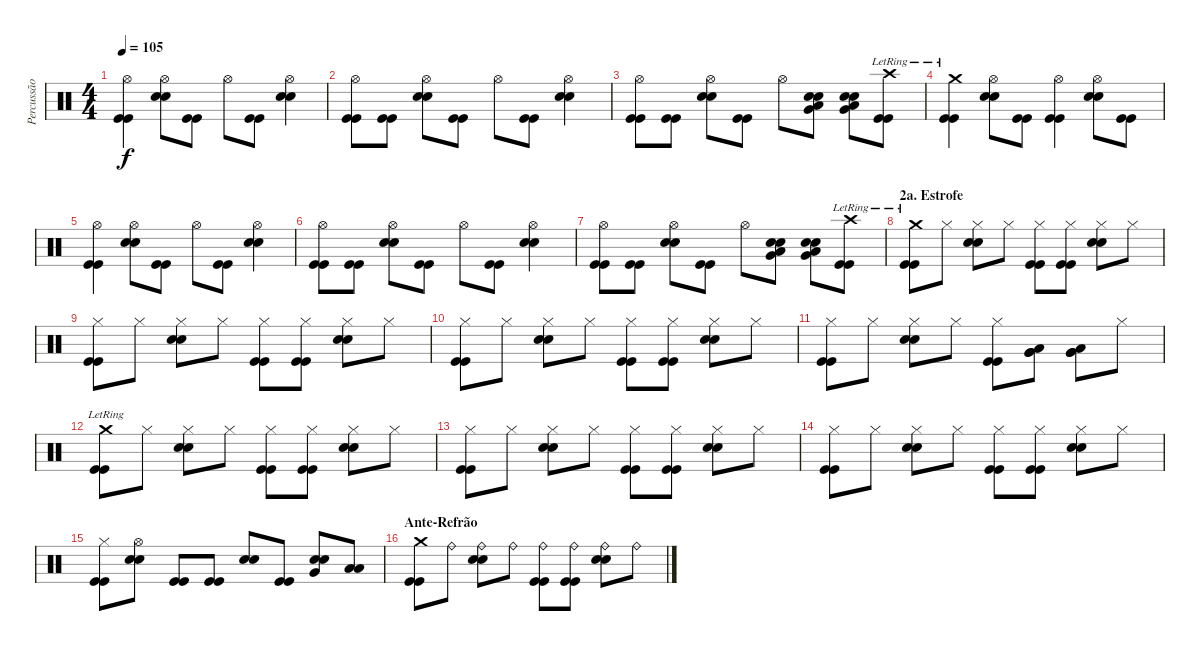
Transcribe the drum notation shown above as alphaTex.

\track ("Percussão" "Percussão") {instrument percussion}
\staff {score}
\articulation defaults
\ts (4 4)
\tempo 105
\clef neutral
\ks c
("Hi-Hat (open)" "Kick (hit)" "Kick (hit)").4{dy f} ("Hi-Hat (open)" "Electric Snare (hit)" "Electric Snare (hit)").8 ("Kick (hit)" "Kick (hit)").8 "Hi-Hat (open)".8 ("Kick (hit)" "Kick (hit)").8 ("Hi-Hat (open)" "Electric Snare (hit)" "Electric Snare (hit)").4 |
("Hi-Hat (open)" "Kick (hit)" "Kick (hit)").8 ("Kick (hit)" "Kick (hit)").8 ("Hi-Hat (open)" "Electric Snare (hit)" "Electric Snare (hit)").8 ("Kick (hit)" "Kick (hit)").8 "Hi-Hat (open)".8 ("Kick (hit)" "Kick (hit)").8 ("Hi-Hat (open)" "Electric Snare (hit)" "Electric Snare (hit)").4 |
("Hi-Hat (open)" "Kick (hit)" "Kick (hit)").8 ("Kick (hit)" "Kick (hit)").8 ("Hi-Hat (open)" "Electric Snare (hit)" "Electric Snare (hit)").8 ("Kick (hit)" "Kick (hit)").8 "Hi-Hat (open)".8 ("Low Tom (hit)" "Very Low Tom (hit)" "Electric Snare (hit)" "Electric Snare (hit)").8 ("Low Tom (hit)" "Very Low Tom (hit)" "Electric Snare (hit)" "Electric Snare (hit)").8 ("Crash high (hit)"{lr} "Kick (hit)" "Kick (hit)").8 |
("Crash medium (hit)"{lr} "Kick (hit)" "Kick (hit)").4 ("Hi-Hat (open)" "Electric Snare (hit)" "Electric Snare (hit)").8 ("Kick (hit)" "Kick (hit)").8 ("Hi-Hat (open)" "Kick (hit)" "Kick (hit)").4 ("Hi-Hat (open)" "Electric Snare (hit)" "Electric Snare (hit)").8 ("Kick (hit)" "Kick (hit)").8 |
("Hi-Hat (open)" "Kick (hit)" "Kick (hit)").4 ("Hi-Hat (open)" "Electric Snare (hit)" "Electric Snare (hit)").8 ("Kick (hit)" "Kick (hit)").8 "Hi-Hat (open)".8 ("Kick (hit)" "Kick (hit)").8 ("Hi-Hat (open)" "Electric Snare (hit)" "Electric Snare (hit)").4 |
("Hi-Hat (open)" "Kick (hit)" "Kick (hit)").8 ("Kick (hit)" "Kick (hit)").8 ("Hi-Hat (open)" "Electric Snare (hit)" "Electric Snare (hit)").8 ("Kick (hit)" "Kick (hit)").8 "Hi-Hat (open)".8 ("Kick (hit)" "Kick (hit)").8 ("Hi-Hat (open)" "Electric Snare (hit)" "Electric Snare (hit)").4 |
("Hi-Hat (open)" "Kick (hit)" "Kick (hit)").8 ("Kick (hit)" "Kick (hit)").8 ("Hi-Hat (open)" "Electric Snare (hit)" "Electric Snare (hit)").8 ("Kick (hit)" "Kick (hit)").8 "Hi-Hat (open)".8 ("Low Tom (hit)" "Very Low Tom (hit)" "Electric Snare (hit)" "Electric Snare (hit)").8 ("Low Tom (hit)" "Very Low Tom (hit)" "Electric Snare (hit)" "Electric Snare (hit)").8 ("Crash high (hit)"{lr} "Kick (hit)" "Kick (hit)").8 |
\section ("" "2a. Estrofe")
("Crash medium (hit)"{lr} "Kick (hit)" "Kick (hit)").8 "Hi-Hat (closed)".8 ("Hi-Hat (closed)" "Electric Snare (hit)" "Electric Snare (hit)").8 "Hi-Hat (closed)".8 ("Hi-Hat (closed)" "Kick (hit)" "Kick (hit)").8 ("Hi-Hat (closed)" "Kick (hit)" "Kick (hit)").8 ("Hi-Hat (closed)" "Electric Snare (hit)" "Electric Snare (hit)").8 "Hi-Hat (closed)".8 |
("Hi-Hat (closed)" "Kick (hit)" "Kick (hit)").8 "Hi-Hat (closed)".8 ("Hi-Hat (closed)" "Electric Snare (hit)" "Electric Snare (hit)").8 "Hi-Hat (closed)".8 ("Hi-Hat (closed)" "Kick (hit)" "Kick (hit)").8 ("Hi-Hat (closed)" "Kick (hit)" "Kick (hit)").8 ("Hi-Hat (closed)" "Electric Snare (hit)" "Electric Snare (hit)").8 "Hi-Hat (closed)".8 |
("Hi-Hat (closed)" "Kick (hit)" "Kick (hit)").8 "Hi-Hat (closed)".8 ("Hi-Hat (closed)" "Electric Snare (hit)" "Electric Snare (hit)").8 "Hi-Hat (closed)".8 ("Hi-Hat (closed)" "Kick (hit)" "Kick (hit)").8 ("Hi-Hat (closed)" "Kick (hit)" "Kick (hit)").8 ("Hi-Hat (closed)" "Electric Snare (hit)" "Electric Snare (hit)").8 "Hi-Hat (closed)".8 |
("Hi-Hat (closed)" "Kick (hit)" "Kick (hit)").8 "Hi-Hat (closed)".8 ("Hi-Hat (closed)" "Electric Snare (hit)" "Electric Snare (hit)").8 "Hi-Hat (closed)".8 ("Hi-Hat (closed)" "Kick (hit)" "Kick (hit)").8 ("Low Tom (hit)" "Very Low Tom (hit)" "Very Low Tom (hit)").8 ("Low Tom (hit)" "Very Low Tom (hit)" "Very Low Tom (hit)").8 "Hi-Hat (closed)".8 |
("Crash medium (hit)"{lr} "Kick (hit)" "Kick (hit)").8 "Hi-Hat (closed)".8 ("Hi-Hat (closed)" "Electric Snare (hit)" "Electric Snare (hit)").8 "Hi-Hat (closed)".8 ("Hi-Hat (closed)" "Kick (hit)" "Kick (hit)").8 ("Hi-Hat (closed)" "Kick (hit)" "Kick (hit)").8 ("Hi-Hat (closed)" "Electric Snare (hit)" "Electric Snare (hit)").8 "Hi-Hat (closed)".8 |
("Hi-Hat (closed)" "Kick (hit)" "Kick (hit)").8 "Hi-Hat (closed)".8 ("Hi-Hat (closed)" "Electric Snare (hit)" "Electric Snare (hit)").8 "Hi-Hat (closed)".8 ("Hi-Hat (closed)" "Kick (hit)" "Kick (hit)").8 ("Hi-Hat (closed)" "Kick (hit)" "Kick (hit)").8 ("Hi-Hat (closed)" "Electric Snare (hit)" "Electric Snare (hit)").8 "Hi-Hat (closed)".8 |
("Hi-Hat (closed)" "Kick (hit)" "Kick (hit)").8 "Hi-Hat (closed)".8 ("Hi-Hat (closed)" "Electric Snare (hit)" "Electric Snare (hit)").8 "Hi-Hat (closed)".8 ("Hi-Hat (closed)" "Kick (hit)" "Kick (hit)").8 ("Hi-Hat (closed)" "Kick (hit)" "Kick (hit)").8 ("Hi-Hat (closed)" "Electric Snare (hit)" "Electric Snare (hit)").8 "Hi-Hat (closed)".8 |
("Hi-Hat (closed)" "Kick (hit)" "Kick (hit)").8 ("Hi-Hat (open)" "Electric Snare (hit)" "Electric Snare (hit)").8 ("Kick (hit)" "Kick (hit)").8 ("Kick (hit)" "Kick (hit)").8 ("Electric Snare (hit)" "Electric Snare (hit)").8 ("Kick (hit)" "Kick (hit)").8 ("Very Low Tom (hit)" "Electric Snare (hit)" "Electric Snare (hit)").8 ("Low Tom (hit)" "Low Tom (hit)").8 |
\section ("" "Ante-Refrão")
("Crash medium (hit)" "Kick (hit)" "Kick (hit)").8 "Ride (bell)".8 ("Ride (bell)" "Electric Snare (hit)" "Electric Snare (hit)").8 "Ride (bell)".8 ("Ride (bell)" "Kick (hit)" "Kick (hit)").8 ("Ride (bell)" "Kick (hit)" "Kick (hit)").8 ("Ride (bell)" "Electric Snare (hit)" "Electric Snare (hit)").8 "Ride (bell)".8
